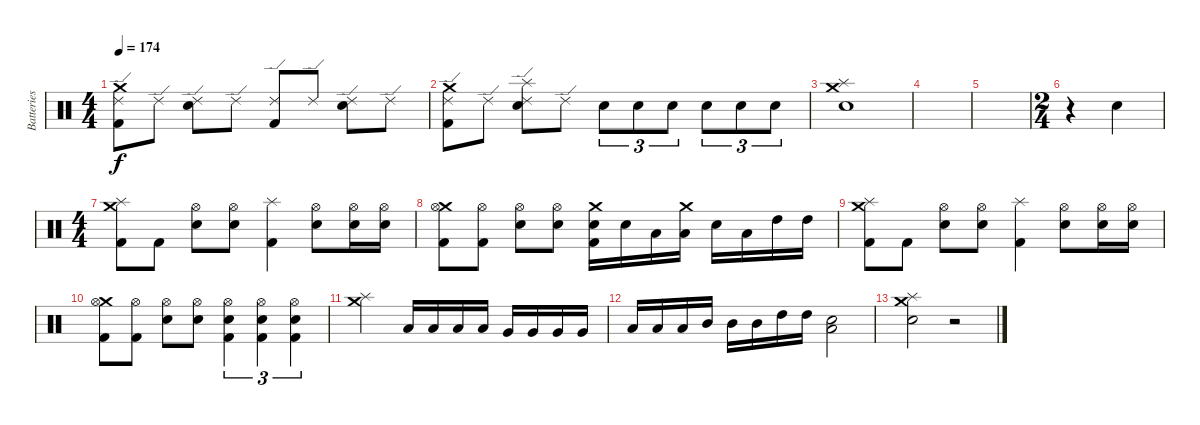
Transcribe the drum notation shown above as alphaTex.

\track ("Batteries" "Batteries") {instrument percussion}
\staff {score}
\articulation defaults
\ts (4 4)
\tempo 174
\clef neutral
\ks c
("Crash medium (hit)" "Ride (edge) 2" "Kick (hit) 2").8{dy f} "Ride (edge) 2".8 ("Ride (edge) 2" "Electric Snare (hit)").8 "Ride (edge) 2".8 ("Ride (edge) 2" "Kick (hit) 2").8 "Ride (edge) 2".8 ("Ride (edge) 2" "Electric Snare (hit)").8 "Ride (edge) 2".8 |
("Crash medium (hit)" "Ride (edge) 2" "Kick (hit) 2").8 "Ride (edge) 2".8 ("Splash (hit)" "Ride (edge) 2" "Electric Snare (hit)").8 "Ride (edge) 2".8 "Electric Snare (hit)".8{tu (3 2)} "Electric Snare (hit)".8{tu (3 2)} "Electric Snare (hit)".8{tu (3 2)} "Electric Snare (hit)".8{tu (3 2)} "Electric Snare (hit)".8{tu (3 2)} "Electric Snare (hit)".8{tu (3 2)} |
("Splash (hit)" "Crash medium (hit)" "Electric Snare (hit)").1 |
|
|
\ts (2 4)
r.4 "Electric Snare (hit)".4 |
\ts (4 4)
("Splash (hit)" "Crash medium (hit)" "Kick (hit) 2").8 "Kick (hit) 2".8 ("Hi-Hat (open)" "Electric Snare (hit)").8 ("Hi-Hat (open)" "Electric Snare (hit)").8 ("Splash (hit)" "Kick (hit) 2").4 ("Hi-Hat (open)" "Electric Snare (hit)").8 ("Hi-Hat (open)" "Electric Snare (hit)").16 ("Hi-Hat (open)" "Electric Snare (hit)").16 |
("Crash medium (hit)" "Hi-Hat (open)" "Kick (hit) 2").8 ("Hi-Hat (open)" "Kick (hit) 2").8 ("Hi-Hat (open)" "Electric Snare (hit)").8 ("Hi-Hat (open)" "Electric Snare (hit)").8 ("Crash medium (hit)" "Electric Snare (hit)" "Kick (hit) 2").16 "Electric Snare (hit)".16 "Low Tom (hit)".16 ("Crash medium (hit)" "Low Tom (hit)").16 "Electric Snare (hit)".16 "Low Floor Tom (hit)".16 "High Tom (hit)".16 "High Tom (hit)".16 |
("Splash (hit)" "Crash medium (hit)" "Kick (hit) 2").8 "Kick (hit) 2".8 ("Hi-Hat (open)" "Electric Snare (hit)").8 ("Hi-Hat (open)" "Electric Snare (hit)").8 ("Splash (hit)" "Kick (hit) 2").4 ("Hi-Hat (open)" "Electric Snare (hit)").8 ("Hi-Hat (open)" "Electric Snare (hit)").16 ("Hi-Hat (open)" "Electric Snare (hit)").16 |
("Crash medium (hit)" "Hi-Hat (open)" "Kick (hit) 2").8 ("Hi-Hat (open)" "Kick (hit) 2").8 ("Hi-Hat (open)" "Electric Snare (hit)").8 ("Hi-Hat (open)" "Electric Snare (hit)").8 ("Hi-Hat (open)" "Electric Snare (hit)" "Kick (hit) 2").4{tu (3 2)} ("Hi-Hat (open)" "Electric Snare (hit)" "Kick (hit) 2").4{tu (3 2)} ("Hi-Hat (open)" "Electric Snare (hit)" "Kick (hit) 2").4{tu (3 2)} |
("Crash medium (hit)" "Splash (hit)").2 "Low Floor Tom (hit)".16 "Low Floor Tom (hit)".16 "Low Floor Tom (hit)".16 "Low Floor Tom (hit)".16 "Very Low Tom (hit)".16 "Very Low Tom (hit)".16 "Very Low Tom (hit)".16 "Very Low Tom (hit)".16 |
"Low Tom (hit)".16 "Low Tom (hit)".16 "Low Tom (hit)".16 "Mid Tom (hit)".16 "Mid Tom (hit)".16 "Mid Tom (hit)".16 "High Tom (hit)".16 "High Tom (hit)".16 ("Low Floor Tom (hit)" "Electric Snare (hit)").2 |
("Crash medium (hit)" "Splash (hit)" "Electric Snare (hit)").2 r.2
